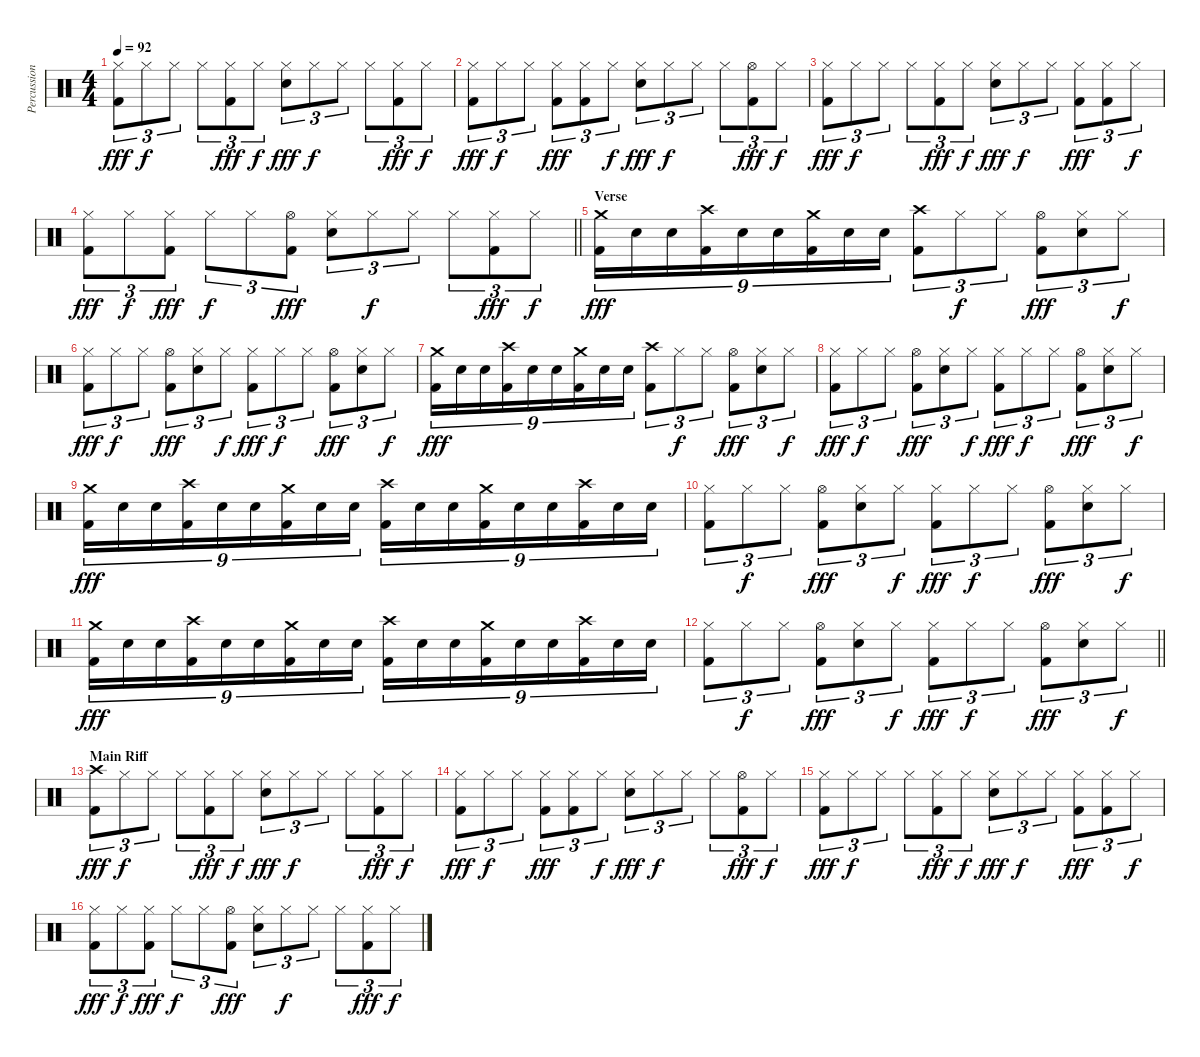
\track ("Percussions" "Percussion") {instrument percussion}
\staff {score}
\articulation defaults
\ts (4 4)
\tempo 92
\clef neutral
\ks c
("Hi-Hat (closed)" "Kick (hit) 2").8{tu (3 2) dy fff} "Hi-Hat (closed)".8{tu (3 2) dy f} "Hi-Hat (closed)".8{tu (3 2)} "Hi-Hat (closed)".8{tu (3 2)} ("Hi-Hat (closed)" "Kick (hit) 2").8{tu (3 2) dy fff} "Hi-Hat (closed)".8{tu (3 2) dy f} ("Hi-Hat (closed)" "Snare (hit) 2").8{tu (3 2) dy fff} "Hi-Hat (closed)".8{tu (3 2) dy f} "Hi-Hat (closed)".8{tu (3 2)} "Hi-Hat (closed)".8{tu (3 2)} ("Hi-Hat (closed)" "Kick (hit) 2").8{tu (3 2) dy fff} "Hi-Hat (closed)".8{tu (3 2) dy f} |
("Hi-Hat (closed)" "Kick (hit) 2").8{tu (3 2) dy fff} "Hi-Hat (closed)".8{tu (3 2) dy f} "Hi-Hat (closed)".8{tu (3 2)} ("Hi-Hat (closed)" "Kick (hit) 2").8{tu (3 2) dy fff} ("Hi-Hat (closed)" "Kick (hit) 2").8{tu (3 2)} "Hi-Hat (closed)".8{tu (3 2) dy f} ("Hi-Hat (closed)" "Snare (hit) 2").8{tu (3 2) dy fff} "Hi-Hat (closed)".8{tu (3 2) dy f} "Hi-Hat (closed)".8{tu (3 2)} "Hi-Hat (closed)".8{tu (3 2)} ("Hi-Hat (open)" "Kick (hit) 2").8{tu (3 2) dy fff} "Hi-Hat (closed)".8{tu (3 2) dy f} |
("Hi-Hat (closed)" "Kick (hit) 2").8{tu (3 2) dy fff} "Hi-Hat (closed)".8{tu (3 2) dy f} "Hi-Hat (closed)".8{tu (3 2)} "Hi-Hat (closed)".8{tu (3 2)} ("Hi-Hat (closed)" "Kick (hit) 2").8{tu (3 2) dy fff} "Hi-Hat (closed)".8{tu (3 2) dy f} ("Hi-Hat (closed)" "Snare (hit) 2").8{tu (3 2) dy fff} "Hi-Hat (closed)".8{tu (3 2) dy f} "Hi-Hat (closed)".8{tu (3 2)} ("Hi-Hat (closed)" "Kick (hit) 2").8{tu (3 2) dy fff} ("Hi-Hat (closed)" "Kick (hit) 2").8{tu (3 2)} "Hi-Hat (closed)".8{tu (3 2) dy f} |
\barLineRight lightlight
("Hi-Hat (closed)" "Kick (hit) 2").8{tu (3 2) dy fff} "Hi-Hat (closed)".8{tu (3 2) dy f} ("Hi-Hat (closed)" "Kick (hit) 2").8{tu (3 2) dy fff} "Hi-Hat (closed)".8{tu (3 2) dy f} "Hi-Hat (closed)".8{tu (3 2)} ("Hi-Hat (open)" "Kick (hit) 2").8{tu (3 2) dy fff} ("Hi-Hat (closed)" "Snare (hit) 2").8{tu (3 2)} "Hi-Hat (closed)".8{tu (3 2) dy f} "Hi-Hat (closed)".8{tu (3 2)} "Hi-Hat (closed)".8{tu (3 2)} ("Hi-Hat (closed)" "Kick (hit) 2").8{tu (3 2) dy fff} "Hi-Hat (closed)".8{tu (3 2) dy f} |
\section ("" "Verse")
("Crash medium (hit)" "Kick (hit) 2").16{tu (9 8) dy fff} "Snare (hit) 2".16{tu (9 8)} "Snare (hit) 2".16{tu (9 8)} ("Crash high (hit)" "Kick (hit) 2").16{tu (9 8)} "Snare (hit) 2".16{tu (9 8)} "Snare (hit) 2".16{tu (9 8)} ("Crash medium (hit)" "Kick (hit) 2").16{tu (9 8)} "Snare (hit) 2".16{tu (9 8)} "Snare (hit) 2".16{tu (9 8)} ("Crash high (hit)" "Kick (hit) 2").8{tu (3 2)} "Hi-Hat (closed)".8{tu (3 2) dy f} "Hi-Hat (closed)".8{tu (3 2)} ("Hi-Hat (open)" "Kick (hit) 2").8{tu (3 2) dy fff} ("Hi-Hat (closed)" "Snare (hit) 2").8{tu (3 2)} "Hi-Hat (closed)".8{tu (3 2) dy f} |
("Hi-Hat (closed)" "Kick (hit) 2").8{tu (3 2) dy fff} "Hi-Hat (closed)".8{tu (3 2) dy f} "Hi-Hat (closed)".8{tu (3 2)} ("Hi-Hat (open)" "Kick (hit) 2").8{tu (3 2) dy fff} ("Hi-Hat (closed)" "Snare (hit) 2").8{tu (3 2)} "Hi-Hat (closed)".8{tu (3 2) dy f} ("Hi-Hat (closed)" "Kick (hit) 2").8{tu (3 2) dy fff} "Hi-Hat (closed)".8{tu (3 2) dy f} "Hi-Hat (closed)".8{tu (3 2)} ("Hi-Hat (open)" "Kick (hit) 2").8{tu (3 2) dy fff} ("Hi-Hat (closed)" "Snare (hit) 2").8{tu (3 2)} "Hi-Hat (closed)".8{tu (3 2) dy f} |
("Crash medium (hit)" "Kick (hit) 2").16{tu (9 8) dy fff} "Snare (hit) 2".16{tu (9 8)} "Snare (hit) 2".16{tu (9 8)} ("Crash high (hit)" "Kick (hit) 2").16{tu (9 8)} "Snare (hit) 2".16{tu (9 8)} "Snare (hit) 2".16{tu (9 8)} ("Crash medium (hit)" "Kick (hit) 2").16{tu (9 8)} "Snare (hit) 2".16{tu (9 8)} "Snare (hit) 2".16{tu (9 8)} ("Crash high (hit)" "Kick (hit) 2").8{tu (3 2)} "Hi-Hat (closed)".8{tu (3 2) dy f} "Hi-Hat (closed)".8{tu (3 2)} ("Hi-Hat (open)" "Kick (hit) 2").8{tu (3 2) dy fff} ("Hi-Hat (closed)" "Snare (hit) 2").8{tu (3 2)} "Hi-Hat (closed)".8{tu (3 2) dy f} |
("Hi-Hat (closed)" "Kick (hit) 2").8{tu (3 2) dy fff} "Hi-Hat (closed)".8{tu (3 2) dy f} "Hi-Hat (closed)".8{tu (3 2)} ("Hi-Hat (open)" "Kick (hit) 2").8{tu (3 2) dy fff} ("Hi-Hat (closed)" "Snare (hit) 2").8{tu (3 2)} "Hi-Hat (closed)".8{tu (3 2) dy f} ("Hi-Hat (closed)" "Kick (hit) 2").8{tu (3 2) dy fff} "Hi-Hat (closed)".8{tu (3 2) dy f} "Hi-Hat (closed)".8{tu (3 2)} ("Hi-Hat (open)" "Kick (hit) 2").8{tu (3 2) dy fff} ("Hi-Hat (closed)" "Snare (hit) 2").8{tu (3 2)} "Hi-Hat (closed)".8{tu (3 2) dy f} |
("Crash medium (hit)" "Kick (hit) 2").16{tu (9 8) dy fff} "Snare (hit) 2".16{tu (9 8)} "Snare (hit) 2".16{tu (9 8)} ("Crash high (hit)" "Kick (hit) 2").16{tu (9 8)} "Snare (hit) 2".16{tu (9 8)} "Snare (hit) 2".16{tu (9 8)} ("Crash medium (hit)" "Kick (hit) 2").16{tu (9 8)} "Snare (hit) 2".16{tu (9 8)} "Snare (hit) 2".16{tu (9 8)} ("Crash high (hit)" "Kick (hit) 2").16{tu (9 8)} "Snare (hit) 2".16{tu (9 8)} "Snare (hit) 2".16{tu (9 8)} ("Crash medium (hit)" "Kick (hit) 2").16{tu (9 8)} "Snare (hit) 2".16{tu (9 8)} "Snare (hit) 2".16{tu (9 8)} ("Crash high (hit)" "Kick (hit) 2").16{tu (9 8)} "Snare (hit) 2".16{tu (9 8)} "Snare (hit) 2".16{tu (9 8)} |
("Hi-Hat (closed)" "Kick (hit) 2").8{tu (3 2)} "Hi-Hat (closed)".8{tu (3 2) dy f} "Hi-Hat (closed)".8{tu (3 2)} ("Hi-Hat (open)" "Kick (hit) 2").8{tu (3 2) dy fff} ("Hi-Hat (closed)" "Snare (hit) 2").8{tu (3 2)} "Hi-Hat (closed)".8{tu (3 2) dy f} ("Hi-Hat (closed)" "Kick (hit) 2").8{tu (3 2) dy fff} "Hi-Hat (closed)".8{tu (3 2) dy f} "Hi-Hat (closed)".8{tu (3 2)} ("Hi-Hat (open)" "Kick (hit) 2").8{tu (3 2) dy fff} ("Hi-Hat (closed)" "Snare (hit) 2").8{tu (3 2)} "Hi-Hat (closed)".8{tu (3 2) dy f} |
("Crash medium (hit)" "Kick (hit) 2").16{tu (9 8) dy fff} "Snare (hit) 2".16{tu (9 8)} "Snare (hit) 2".16{tu (9 8)} ("Crash high (hit)" "Kick (hit) 2").16{tu (9 8)} "Snare (hit) 2".16{tu (9 8)} "Snare (hit) 2".16{tu (9 8)} ("Crash medium (hit)" "Kick (hit) 2").16{tu (9 8)} "Snare (hit) 2".16{tu (9 8)} "Snare (hit) 2".16{tu (9 8)} ("Crash high (hit)" "Kick (hit) 2").16{tu (9 8)} "Snare (hit) 2".16{tu (9 8)} "Snare (hit) 2".16{tu (9 8)} ("Crash medium (hit)" "Kick (hit) 2").16{tu (9 8)} "Snare (hit) 2".16{tu (9 8)} "Snare (hit) 2".16{tu (9 8)} ("Crash high (hit)" "Kick (hit) 2").16{tu (9 8)} "Snare (hit) 2".16{tu (9 8)} "Snare (hit) 2".16{tu (9 8)} |
\barLineRight lightlight
("Hi-Hat (closed)" "Kick (hit) 2").8{tu (3 2)} "Hi-Hat (closed)".8{tu (3 2) dy f} "Hi-Hat (closed)".8{tu (3 2)} ("Hi-Hat (open)" "Kick (hit) 2").8{tu (3 2) dy fff} ("Hi-Hat (closed)" "Snare (hit) 2").8{tu (3 2)} "Hi-Hat (closed)".8{tu (3 2) dy f} ("Hi-Hat (closed)" "Kick (hit) 2").8{tu (3 2) dy fff} "Hi-Hat (closed)".8{tu (3 2) dy f} "Hi-Hat (closed)".8{tu (3 2)} ("Hi-Hat (open)" "Kick (hit) 2").8{tu (3 2) dy fff} ("Hi-Hat (closed)" "Snare (hit) 2").8{tu (3 2)} "Hi-Hat (closed)".8{tu (3 2) dy f} |
\section ("" "Main Riff")
("Crash high (hit)" "Kick (hit) 2").8{tu (3 2) dy fff} "Hi-Hat (closed)".8{tu (3 2) dy f} "Hi-Hat (closed)".8{tu (3 2)} "Hi-Hat (closed)".8{tu (3 2)} ("Hi-Hat (closed)" "Kick (hit) 2").8{tu (3 2) dy fff} "Hi-Hat (closed)".8{tu (3 2) dy f} ("Hi-Hat (closed)" "Snare (hit) 2").8{tu (3 2) dy fff} "Hi-Hat (closed)".8{tu (3 2) dy f} "Hi-Hat (closed)".8{tu (3 2)} "Hi-Hat (closed)".8{tu (3 2)} ("Hi-Hat (closed)" "Kick (hit) 2").8{tu (3 2) dy fff} "Hi-Hat (closed)".8{tu (3 2) dy f} |
("Hi-Hat (closed)" "Kick (hit) 2").8{tu (3 2) dy fff} "Hi-Hat (closed)".8{tu (3 2) dy f} "Hi-Hat (closed)".8{tu (3 2)} ("Hi-Hat (closed)" "Kick (hit) 2").8{tu (3 2) dy fff} ("Hi-Hat (closed)" "Kick (hit) 2").8{tu (3 2)} "Hi-Hat (closed)".8{tu (3 2) dy f} ("Hi-Hat (closed)" "Snare (hit) 2").8{tu (3 2) dy fff} "Hi-Hat (closed)".8{tu (3 2) dy f} "Hi-Hat (closed)".8{tu (3 2)} "Hi-Hat (closed)".8{tu (3 2)} ("Hi-Hat (open)" "Kick (hit) 2").8{tu (3 2) dy fff} "Hi-Hat (closed)".8{tu (3 2) dy f} |
("Hi-Hat (closed)" "Kick (hit) 2").8{tu (3 2) dy fff} "Hi-Hat (closed)".8{tu (3 2) dy f} "Hi-Hat (closed)".8{tu (3 2)} "Hi-Hat (closed)".8{tu (3 2)} ("Hi-Hat (closed)" "Kick (hit) 2").8{tu (3 2) dy fff} "Hi-Hat (closed)".8{tu (3 2) dy f} ("Hi-Hat (closed)" "Snare (hit) 2").8{tu (3 2) dy fff} "Hi-Hat (closed)".8{tu (3 2) dy f} "Hi-Hat (closed)".8{tu (3 2)} ("Hi-Hat (closed)" "Kick (hit) 2").8{tu (3 2) dy fff} ("Hi-Hat (closed)" "Kick (hit) 2").8{tu (3 2)} "Hi-Hat (closed)".8{tu (3 2) dy f} |
("Hi-Hat (closed)" "Kick (hit) 2").8{tu (3 2) dy fff} "Hi-Hat (closed)".8{tu (3 2) dy f} ("Hi-Hat (closed)" "Kick (hit) 2").8{tu (3 2) dy fff} "Hi-Hat (closed)".8{tu (3 2) dy f} "Hi-Hat (closed)".8{tu (3 2)} ("Hi-Hat (open)" "Kick (hit) 2").8{tu (3 2) dy fff} ("Hi-Hat (closed)" "Snare (hit) 2").8{tu (3 2)} "Hi-Hat (closed)".8{tu (3 2) dy f} "Hi-Hat (closed)".8{tu (3 2)} "Hi-Hat (closed)".8{tu (3 2)} ("Hi-Hat (closed)" "Kick (hit) 2").8{tu (3 2) dy fff} "Hi-Hat (closed)".8{tu (3 2) dy f}
